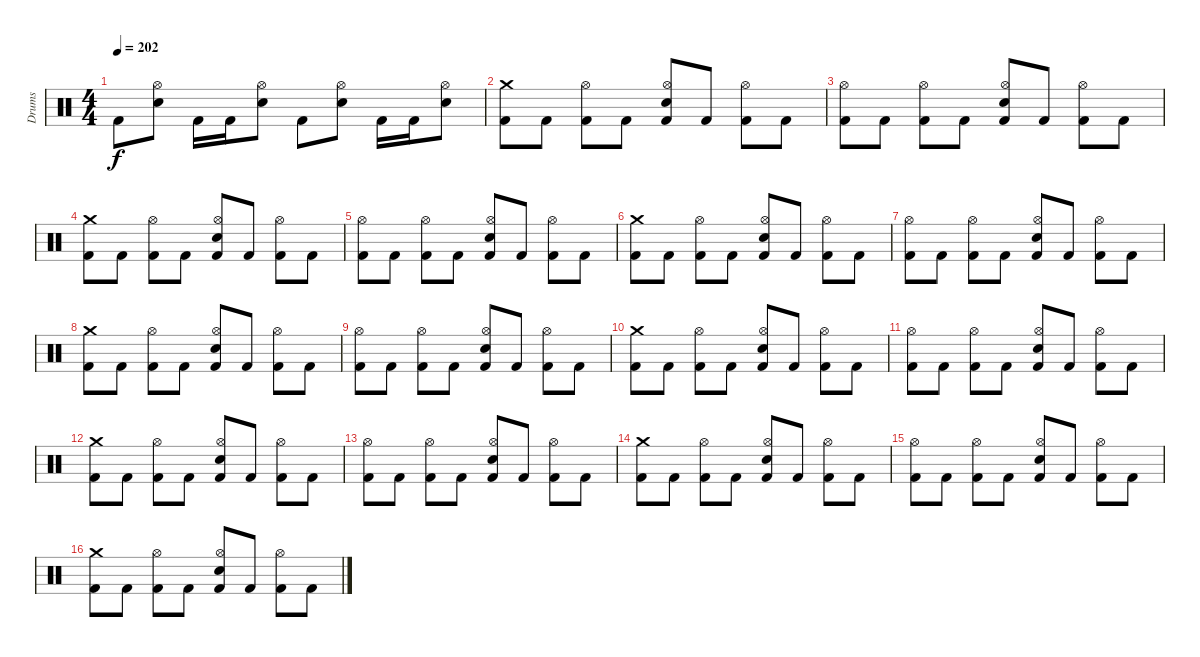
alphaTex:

\track ("Drums" "Drums") {instrument percussion}
\staff {score}
\articulation defaults
\ts (4 4)
\tempo 202
\clef neutral
\ks c "Kick (hit) 2".8{dy f}
("Hi-Hat (open)" "Electric Snare (hit)").8 "Kick (hit) 2".16 "Kick (hit) 2".16 ("Hi-Hat (open)" "Electric Snare (hit)").8 "Kick (hit) 2".8 ("Hi-Hat (open)" "Electric Snare (hit)").8 "Kick (hit) 2".16 "Kick (hit) 2".16 ("Hi-Hat (open)" "Electric Snare (hit)").8 |
("Crash medium (hit)" "Kick (hit) 2").8 "Kick (hit) 2".8 ("Hi-Hat (open)" "Kick (hit) 2").8 "Kick (hit) 2".8 ("Hi-Hat (open)" "Electric Snare (hit)" "Kick (hit) 2").8 "Kick (hit) 2".8 ("Hi-Hat (open)" "Kick (hit) 2").8 "Kick (hit) 2".8 |
("Hi-Hat (open)" "Kick (hit) 2").8 "Kick (hit) 2".8 ("Hi-Hat (open)" "Kick (hit) 2").8 "Kick (hit) 2".8 ("Hi-Hat (open)" "Electric Snare (hit)" "Kick (hit) 2").8 "Kick (hit) 2".8 ("Hi-Hat (open)" "Kick (hit) 2").8 "Kick (hit) 2".8 |
("Crash medium (hit)" "Kick (hit) 2").8 "Kick (hit) 2".8 ("Hi-Hat (open)" "Kick (hit) 2").8 "Kick (hit) 2".8 ("Hi-Hat (open)" "Electric Snare (hit)" "Kick (hit) 2").8 "Kick (hit) 2".8 ("Hi-Hat (open)" "Kick (hit) 2").8 "Kick (hit) 2".8 |
("Hi-Hat (open)" "Kick (hit) 2").8 "Kick (hit) 2".8 ("Hi-Hat (open)" "Kick (hit) 2").8 "Kick (hit) 2".8 ("Hi-Hat (open)" "Electric Snare (hit)" "Kick (hit) 2").8 "Kick (hit) 2".8 ("Hi-Hat (open)" "Kick (hit) 2").8 "Kick (hit) 2".8 |
("Crash medium (hit)" "Kick (hit) 2").8 "Kick (hit) 2".8 ("Hi-Hat (open)" "Kick (hit) 2").8 "Kick (hit) 2".8 ("Hi-Hat (open)" "Electric Snare (hit)" "Kick (hit) 2").8 "Kick (hit) 2".8 ("Hi-Hat (open)" "Kick (hit) 2").8 "Kick (hit) 2".8 |
("Hi-Hat (open)" "Kick (hit) 2").8 "Kick (hit) 2".8 ("Hi-Hat (open)" "Kick (hit) 2").8 "Kick (hit) 2".8 ("Hi-Hat (open)" "Electric Snare (hit)" "Kick (hit) 2").8 "Kick (hit) 2".8 ("Hi-Hat (open)" "Kick (hit) 2").8 "Kick (hit) 2".8 |
("Crash medium (hit)" "Kick (hit) 2").8 "Kick (hit) 2".8 ("Hi-Hat (open)" "Kick (hit) 2").8 "Kick (hit) 2".8 ("Hi-Hat (open)" "Electric Snare (hit)" "Kick (hit) 2").8 "Kick (hit) 2".8 ("Hi-Hat (open)" "Kick (hit) 2").8 "Kick (hit) 2".8 |
("Hi-Hat (open)" "Kick (hit) 2").8 "Kick (hit) 2".8 ("Hi-Hat (open)" "Kick (hit) 2").8 "Kick (hit) 2".8 ("Hi-Hat (open)" "Electric Snare (hit)" "Kick (hit) 2").8 "Kick (hit) 2".8 ("Hi-Hat (open)" "Kick (hit) 2").8 "Kick (hit) 2".8 |
("Crash medium (hit)" "Kick (hit) 2").8 "Kick (hit) 2".8 ("Hi-Hat (open)" "Kick (hit) 2").8 "Kick (hit) 2".8 ("Hi-Hat (open)" "Electric Snare (hit)" "Kick (hit) 2").8 "Kick (hit) 2".8 ("Hi-Hat (open)" "Kick (hit) 2").8 "Kick (hit) 2".8 |
("Hi-Hat (open)" "Kick (hit) 2").8 "Kick (hit) 2".8 ("Hi-Hat (open)" "Kick (hit) 2").8 "Kick (hit) 2".8 ("Hi-Hat (open)" "Electric Snare (hit)" "Kick (hit) 2").8 "Kick (hit) 2".8 ("Hi-Hat (open)" "Kick (hit) 2").8 "Kick (hit) 2".8 |
("Crash medium (hit)" "Kick (hit) 2").8 "Kick (hit) 2".8 ("Hi-Hat (open)" "Kick (hit) 2").8 "Kick (hit) 2".8 ("Hi-Hat (open)" "Electric Snare (hit)" "Kick (hit) 2").8 "Kick (hit) 2".8 ("Hi-Hat (open)" "Kick (hit) 2").8 "Kick (hit) 2".8 |
("Hi-Hat (open)" "Kick (hit) 2").8 "Kick (hit) 2".8 ("Hi-Hat (open)" "Kick (hit) 2").8 "Kick (hit) 2".8 ("Hi-Hat (open)" "Electric Snare (hit)" "Kick (hit) 2").8 "Kick (hit) 2".8 ("Hi-Hat (open)" "Kick (hit) 2").8 "Kick (hit) 2".8 |
("Crash medium (hit)" "Kick (hit) 2").8 "Kick (hit) 2".8 ("Hi-Hat (open)" "Kick (hit) 2").8 "Kick (hit) 2".8 ("Hi-Hat (open)" "Electric Snare (hit)" "Kick (hit) 2").8 "Kick (hit) 2".8 ("Hi-Hat (open)" "Kick (hit) 2").8 "Kick (hit) 2".8 |
("Hi-Hat (open)" "Kick (hit) 2").8 "Kick (hit) 2".8 ("Hi-Hat (open)" "Kick (hit) 2").8 "Kick (hit) 2".8 ("Hi-Hat (open)" "Electric Snare (hit)" "Kick (hit) 2").8 "Kick (hit) 2".8 ("Hi-Hat (open)" "Kick (hit) 2").8 "Kick (hit) 2".8 |
("Crash medium (hit)" "Kick (hit) 2").8 "Kick (hit) 2".8 ("Hi-Hat (open)" "Kick (hit) 2").8 "Kick (hit) 2".8 ("Hi-Hat (open)" "Electric Snare (hit)" "Kick (hit) 2").8 "Kick (hit) 2".8 ("Hi-Hat (open)" "Kick (hit) 2").8 "Kick (hit) 2".8
